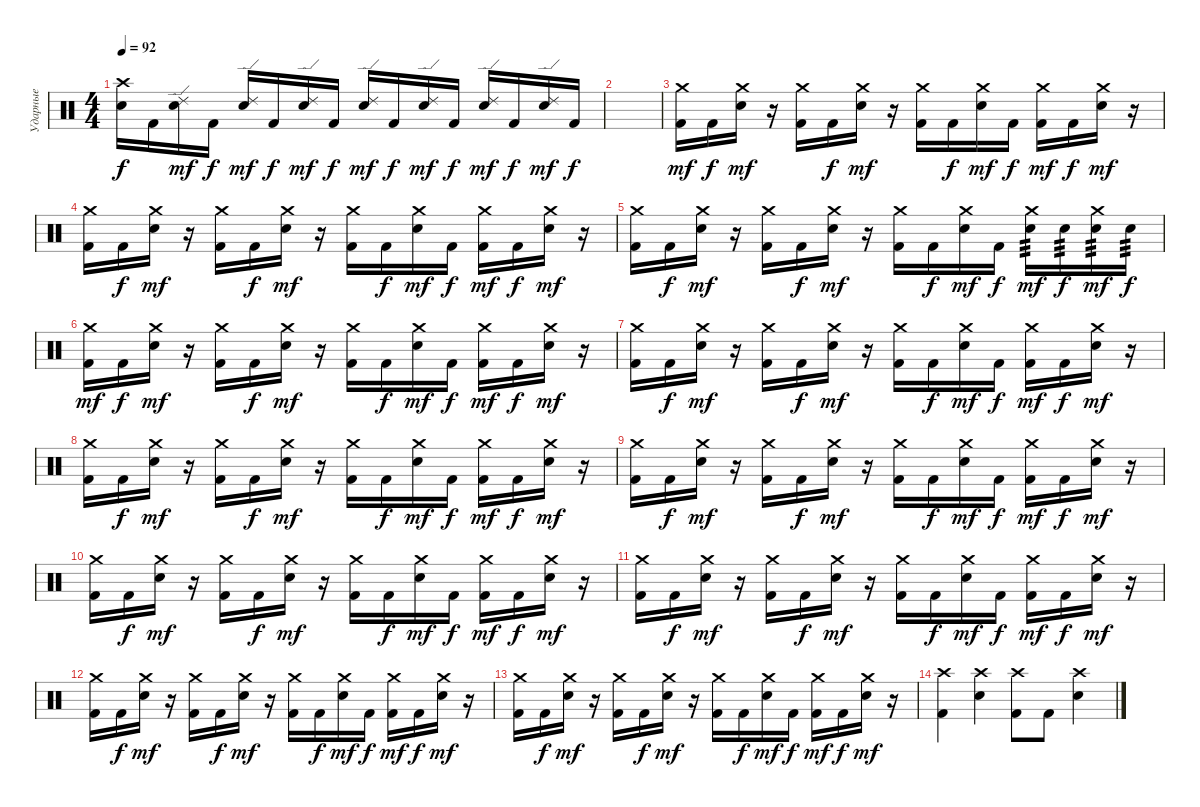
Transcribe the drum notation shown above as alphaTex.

\track ("Ударные" "Ударные") {instrument percussion}
\staff {score}
\articulation defaults
\ts (4 4)
\tempo 92
\clef neutral
\ks c
("Crash high (hit)" "Snare (hit) 2").16{dy f} "Kick (hit) 2".16 ("Ride (edge) 2" "Snare (hit) 2").16{dy mf} "Kick (hit) 2".16{dy f} ("Ride (edge) 2" "Snare (hit) 2").16{dy mf} "Kick (hit) 2".16{dy f} ("Ride (edge) 2" "Snare (hit) 2").16{dy mf} "Kick (hit) 2".16{dy f} ("Ride (edge) 2" "Snare (hit) 2").16{dy mf} "Kick (hit) 2".16{dy f} ("Ride (edge) 2" "Snare (hit) 2").16{dy mf} "Kick (hit) 2".16{dy f} ("Ride (edge) 2" "Snare (hit) 2").16{dy mf} "Kick (hit) 2".16{dy f} ("Ride (edge) 2" "Snare (hit) 2").16{dy mf} "Kick (hit) 2".16{dy f} |
|
("Crash medium (hit)" "Kick (hit) 2").16{dy mf} "Kick (hit) 2".16{dy f} ("Crash medium (hit)" "Snare (hit) 2").16{dy mf} r.16 ("Crash medium (hit)" "Kick (hit) 2").16 "Kick (hit) 2".16{dy f} ("Crash medium (hit)" "Snare (hit) 2").16{dy mf} r.16 ("Crash medium (hit)" "Kick (hit) 2").16 "Kick (hit) 2".16{dy f} ("Crash medium (hit)" "Snare (hit) 2").16{dy mf} "Kick (hit) 2".16{dy f} ("Crash medium (hit)" "Kick (hit) 2").16{dy mf} "Kick (hit) 2".16{dy f} ("Crash medium (hit)" "Snare (hit) 2").16{dy mf} r.16 |
("Crash medium (hit)" "Kick (hit) 2").16 "Kick (hit) 2".16{dy f} ("Crash medium (hit)" "Snare (hit) 2").16{dy mf} r.16 ("Crash medium (hit)" "Kick (hit) 2").16 "Kick (hit) 2".16{dy f} ("Crash medium (hit)" "Snare (hit) 2").16{dy mf} r.16 ("Crash medium (hit)" "Kick (hit) 2").16 "Kick (hit) 2".16{dy f} ("Crash medium (hit)" "Snare (hit) 2").16{dy mf} "Kick (hit) 2".16{dy f} ("Crash medium (hit)" "Kick (hit) 2").16{dy mf} "Kick (hit) 2".16{dy f} ("Crash medium (hit)" "Snare (hit) 2").16{dy mf} r.16 |
("Crash medium (hit)" "Kick (hit) 2").16 "Kick (hit) 2".16{dy f} ("Crash medium (hit)" "Snare (hit) 2").16{dy mf} r.16 ("Crash medium (hit)" "Kick (hit) 2").16 "Kick (hit) 2".16{dy f} ("Crash medium (hit)" "Snare (hit) 2").16{dy mf} r.16 ("Crash medium (hit)" "Kick (hit) 2").16 "Kick (hit) 2".16{dy f} ("Crash medium (hit)" "Snare (hit) 2").16{dy mf} "Kick (hit) 2".16{dy f} ("Crash medium (hit)" "Snare (hit) 2").16{tp 3 dy mf} "Snare (hit) 2".16{tp 3 dy f} ("Crash medium (hit)" "Snare (hit) 2").16{tp 3 dy mf} "Snare (hit) 2".16{tp 3 dy f} |
("Crash medium (hit)" "Kick (hit) 2").16{dy mf} "Kick (hit) 2".16{dy f} ("Crash medium (hit)" "Snare (hit) 2").16{dy mf} r.16 ("Crash medium (hit)" "Kick (hit) 2").16 "Kick (hit) 2".16{dy f} ("Crash medium (hit)" "Snare (hit) 2").16{dy mf} r.16 ("Crash medium (hit)" "Kick (hit) 2").16 "Kick (hit) 2".16{dy f} ("Crash medium (hit)" "Snare (hit) 2").16{dy mf} "Kick (hit) 2".16{dy f} ("Crash medium (hit)" "Kick (hit) 2").16{dy mf} "Kick (hit) 2".16{dy f} ("Crash medium (hit)" "Snare (hit) 2").16{dy mf} r.16 |
("Crash medium (hit)" "Kick (hit) 2").16 "Kick (hit) 2".16{dy f} ("Crash medium (hit)" "Snare (hit) 2").16{dy mf} r.16 ("Crash medium (hit)" "Kick (hit) 2").16 "Kick (hit) 2".16{dy f} ("Crash medium (hit)" "Snare (hit) 2").16{dy mf} r.16 ("Crash medium (hit)" "Kick (hit) 2").16 "Kick (hit) 2".16{dy f} ("Crash medium (hit)" "Snare (hit) 2").16{dy mf} "Kick (hit) 2".16{dy f} ("Crash medium (hit)" "Kick (hit) 2").16{dy mf} "Kick (hit) 2".16{dy f} ("Crash medium (hit)" "Snare (hit) 2").16{dy mf} r.16 |
("Crash medium (hit)" "Kick (hit) 2").16 "Kick (hit) 2".16{dy f} ("Crash medium (hit)" "Snare (hit) 2").16{dy mf} r.16 ("Crash medium (hit)" "Kick (hit) 2").16 "Kick (hit) 2".16{dy f} ("Crash medium (hit)" "Snare (hit) 2").16{dy mf} r.16 ("Crash medium (hit)" "Kick (hit) 2").16 "Kick (hit) 2".16{dy f} ("Crash medium (hit)" "Snare (hit) 2").16{dy mf} "Kick (hit) 2".16{dy f} ("Crash medium (hit)" "Kick (hit) 2").16{dy mf} "Kick (hit) 2".16{dy f} ("Crash medium (hit)" "Snare (hit) 2").16{dy mf} r.16 |
("Crash medium (hit)" "Kick (hit) 2").16 "Kick (hit) 2".16{dy f} ("Crash medium (hit)" "Snare (hit) 2").16{dy mf} r.16 ("Crash medium (hit)" "Kick (hit) 2").16 "Kick (hit) 2".16{dy f} ("Crash medium (hit)" "Snare (hit) 2").16{dy mf} r.16 ("Crash medium (hit)" "Kick (hit) 2").16 "Kick (hit) 2".16{dy f} ("Crash medium (hit)" "Snare (hit) 2").16{dy mf} "Kick (hit) 2".16{dy f} ("Crash medium (hit)" "Kick (hit) 2").16{dy mf} "Kick (hit) 2".16{dy f} ("Crash medium (hit)" "Snare (hit) 2").16{dy mf} r.16 |
("Crash medium (hit)" "Kick (hit) 2").16 "Kick (hit) 2".16{dy f} ("Crash medium (hit)" "Snare (hit) 2").16{dy mf} r.16 ("Crash medium (hit)" "Kick (hit) 2").16 "Kick (hit) 2".16{dy f} ("Crash medium (hit)" "Snare (hit) 2").16{dy mf} r.16 ("Crash medium (hit)" "Kick (hit) 2").16 "Kick (hit) 2".16{dy f} ("Crash medium (hit)" "Snare (hit) 2").16{dy mf} "Kick (hit) 2".16{dy f} ("Crash medium (hit)" "Kick (hit) 2").16{dy mf} "Kick (hit) 2".16{dy f} ("Crash medium (hit)" "Snare (hit) 2").16{dy mf} r.16 |
("Crash medium (hit)" "Kick (hit) 2").16 "Kick (hit) 2".16{dy f} ("Crash medium (hit)" "Snare (hit) 2").16{dy mf} r.16 ("Crash medium (hit)" "Kick (hit) 2").16 "Kick (hit) 2".16{dy f} ("Crash medium (hit)" "Snare (hit) 2").16{dy mf} r.16 ("Crash medium (hit)" "Kick (hit) 2").16 "Kick (hit) 2".16{dy f} ("Crash medium (hit)" "Snare (hit) 2").16{dy mf} "Kick (hit) 2".16{dy f} ("Crash medium (hit)" "Kick (hit) 2").16{dy mf} "Kick (hit) 2".16{dy f} ("Crash medium (hit)" "Snare (hit) 2").16{dy mf} r.16 |
("Crash medium (hit)" "Kick (hit) 2").16 "Kick (hit) 2".16{dy f} ("Crash medium (hit)" "Snare (hit) 2").16{dy mf} r.16 ("Crash medium (hit)" "Kick (hit) 2").16 "Kick (hit) 2".16{dy f} ("Crash medium (hit)" "Snare (hit) 2").16{dy mf} r.16 ("Crash medium (hit)" "Kick (hit) 2").16 "Kick (hit) 2".16{dy f} ("Crash medium (hit)" "Snare (hit) 2").16{dy mf} "Kick (hit) 2".16{dy f} ("Crash medium (hit)" "Kick (hit) 2").16{dy mf} "Kick (hit) 2".16{dy f} ("Crash medium (hit)" "Snare (hit) 2").16{dy mf} r.16 |
("Crash medium (hit)" "Kick (hit) 2").16 "Kick (hit) 2".16{dy f} ("Crash medium (hit)" "Snare (hit) 2").16{dy mf} r.16 ("Crash medium (hit)" "Kick (hit) 2").16 "Kick (hit) 2".16{dy f} ("Crash medium (hit)" "Snare (hit) 2").16{dy mf} r.16 ("Crash medium (hit)" "Kick (hit) 2").16 "Kick (hit) 2".16{dy f} ("Crash medium (hit)" "Snare (hit) 2").16{dy mf} "Kick (hit) 2".16{dy f} ("Crash medium (hit)" "Kick (hit) 2").16{dy mf} "Kick (hit) 2".16{dy f} ("Crash medium (hit)" "Snare (hit) 2").16{dy mf} r.16 |
("Crash high (hit)" "Kick (hit) 2").4 ("Crash high (hit)" "Snare (hit) 2").4 ("Crash high (hit)" "Kick (hit) 2").8 "Kick (hit) 2".8 ("Crash high (hit)" "Snare (hit) 2").4
